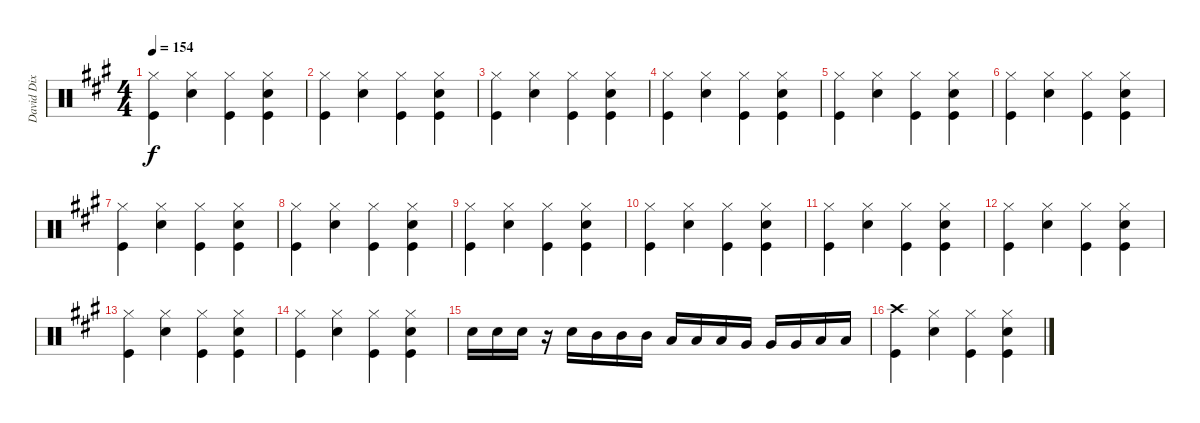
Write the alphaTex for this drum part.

\track ("David Dix Drums" "David Dix ") {instrument percussion}
\staff {score}
\articulation defaults
\ts (4 4)
\tempo 154
\clef neutral
\ks f#minor
("Hi-Hat (closed)" "Kick (hit)").4{dy f} ("Hi-Hat (closed)" "Snare (hit) 2").4 ("Hi-Hat (closed)" "Kick (hit)").4 ("Hi-Hat (closed)" "Snare (hit) 2" "Kick (hit)").4 |
("Hi-Hat (closed)" "Kick (hit)").4 ("Hi-Hat (closed)" "Snare (hit) 2").4 ("Hi-Hat (closed)" "Kick (hit)").4 ("Hi-Hat (closed)" "Snare (hit) 2" "Kick (hit)").4 |
("Hi-Hat (closed)" "Kick (hit)").4 ("Hi-Hat (closed)" "Snare (hit) 2").4 ("Hi-Hat (closed)" "Kick (hit)").4 ("Hi-Hat (closed)" "Snare (hit) 2" "Kick (hit)").4 |
("Hi-Hat (closed)" "Kick (hit)").4 ("Hi-Hat (closed)" "Snare (hit) 2").4 ("Hi-Hat (closed)" "Kick (hit)").4 ("Hi-Hat (closed)" "Snare (hit) 2" "Kick (hit)").4 |
("Hi-Hat (closed)" "Kick (hit)").4 ("Hi-Hat (closed)" "Snare (hit) 2").4 ("Hi-Hat (closed)" "Kick (hit)").4 ("Hi-Hat (closed)" "Snare (hit) 2" "Kick (hit)").4 |
("Hi-Hat (closed)" "Kick (hit)").4 ("Hi-Hat (closed)" "Snare (hit) 2").4 ("Hi-Hat (closed)" "Kick (hit)").4 ("Hi-Hat (closed)" "Snare (hit) 2" "Kick (hit)").4 |
("Hi-Hat (closed)" "Kick (hit)").4 ("Hi-Hat (closed)" "Snare (hit) 2").4 ("Hi-Hat (closed)" "Kick (hit)").4 ("Hi-Hat (closed)" "Snare (hit) 2" "Kick (hit)").4 |
("Hi-Hat (closed)" "Kick (hit)").4 ("Hi-Hat (closed)" "Snare (hit) 2").4 ("Hi-Hat (closed)" "Kick (hit)").4 ("Hi-Hat (closed)" "Snare (hit) 2" "Kick (hit)").4 |
("Hi-Hat (closed)" "Kick (hit)").4 ("Hi-Hat (closed)" "Snare (hit) 2").4 ("Hi-Hat (closed)" "Kick (hit)").4 ("Hi-Hat (closed)" "Snare (hit) 2" "Kick (hit)").4 |
("Hi-Hat (closed)" "Kick (hit)").4 ("Hi-Hat (closed)" "Snare (hit) 2").4 ("Hi-Hat (closed)" "Kick (hit)").4 ("Hi-Hat (closed)" "Snare (hit) 2" "Kick (hit)").4 |
("Hi-Hat (closed)" "Kick (hit)").4 ("Hi-Hat (closed)" "Snare (hit) 2").4 ("Hi-Hat (closed)" "Kick (hit)").4 ("Hi-Hat (closed)" "Snare (hit) 2" "Kick (hit)").4 |
("Hi-Hat (closed)" "Kick (hit)").4 ("Hi-Hat (closed)" "Snare (hit) 2").4 ("Hi-Hat (closed)" "Kick (hit)").4 ("Hi-Hat (closed)" "Snare (hit) 2" "Kick (hit)").4 |
("Hi-Hat (closed)" "Kick (hit)").4 ("Hi-Hat (closed)" "Snare (hit) 2").4 ("Hi-Hat (closed)" "Kick (hit)").4 ("Hi-Hat (closed)" "Snare (hit) 2" "Kick (hit)").4 |
("Hi-Hat (closed)" "Kick (hit)").4 ("Hi-Hat (closed)" "Snare (hit) 2").4 ("Hi-Hat (closed)" "Kick (hit)").4 ("Hi-Hat (closed)" "Snare (hit) 2" "Kick (hit)").4 |
"Snare (hit) 2".16 "Snare (hit) 2".16 "Snare (hit) 2".16 r.16 "Snare (hit) 2".16 "Mid Tom (hit)".16 "Mid Tom (hit)".16 "Mid Tom (hit)".16 "Low Tom (hit)".16 "Low Tom (hit)".16 "Low Tom (hit)".16 "Very Low Tom (hit)".16 "Very Low Tom (hit)".16 "Very Low Tom (hit)".16 "Low Floor Tom (hit)".16 "Low Floor Tom (hit)".16 |
("Crash high (hit)" "Kick (hit)").4 ("Hi-Hat (closed)" "Snare (hit) 2").4 ("Hi-Hat (closed)" "Kick (hit)").4 ("Hi-Hat (closed)" "Snare (hit) 2" "Kick (hit)").4
